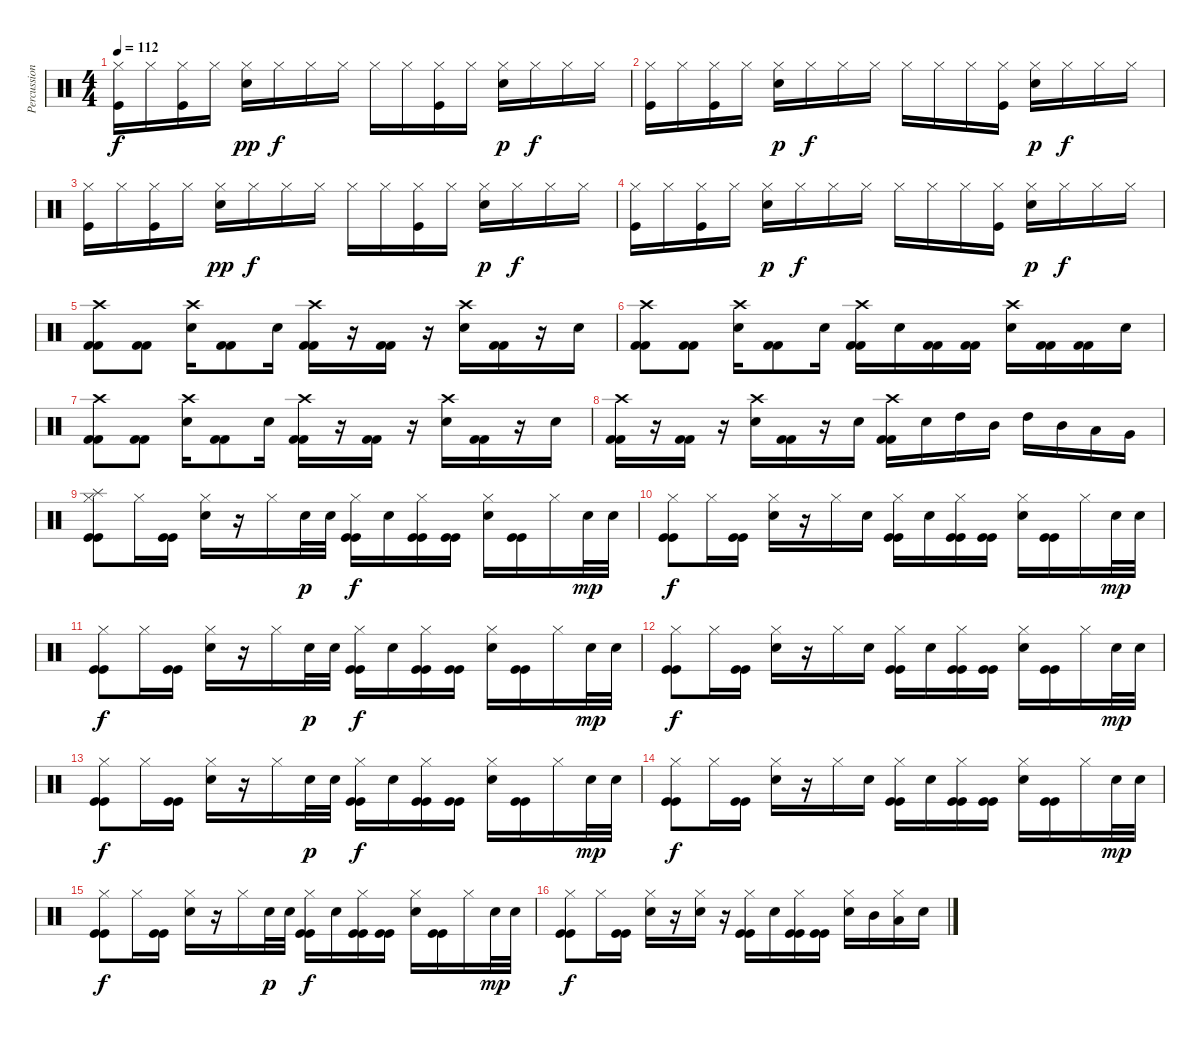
\track ("Percussion" "Percussion") {instrument percussion}
\staff {score}
\articulation defaults
\ts (4 4)
\tempo 112
\clef neutral
\ks c
("Hi-Hat (closed)" "Kick (hit)").16{dy f} "Hi-Hat (closed)".16 ("Hi-Hat (closed)" "Kick (hit)").16 "Hi-Hat (closed)".16 ("Hi-Hat (closed)" "Electric Snare (hit)").16{dy pp} "Hi-Hat (closed)".16{dy f} "Hi-Hat (closed)".16 "Hi-Hat (closed)".16 "Hi-Hat (closed)".16 "Hi-Hat (closed)".16 ("Hi-Hat (closed)" "Kick (hit)").16 "Hi-Hat (closed)".16 ("Hi-Hat (closed)" "Electric Snare (hit)").16{dy p} "Hi-Hat (closed)".16{dy f} "Hi-Hat (closed)".16 "Hi-Hat (closed)".16 |
("Hi-Hat (closed)" "Kick (hit)").16 "Hi-Hat (closed)".16 ("Hi-Hat (closed)" "Kick (hit)").16 "Hi-Hat (closed)".16 ("Hi-Hat (closed)" "Electric Snare (hit)").16{dy p} "Hi-Hat (closed)".16{dy f} "Hi-Hat (closed)".16 "Hi-Hat (closed)".16 "Hi-Hat (closed)".16 "Hi-Hat (closed)".16 "Hi-Hat (closed)".16 ("Hi-Hat (closed)" "Kick (hit)").16 ("Hi-Hat (closed)" "Electric Snare (hit)").16{dy p} "Hi-Hat (closed)".16{dy f} "Hi-Hat (closed)".16 "Hi-Hat (closed)".16 |
("Hi-Hat (closed)" "Kick (hit)").16 "Hi-Hat (closed)".16 ("Hi-Hat (closed)" "Kick (hit)").16 "Hi-Hat (closed)".16 ("Hi-Hat (closed)" "Electric Snare (hit)").16{dy pp} "Hi-Hat (closed)".16{dy f} "Hi-Hat (closed)".16 "Hi-Hat (closed)".16 "Hi-Hat (closed)".16 "Hi-Hat (closed)".16 ("Hi-Hat (closed)" "Kick (hit)").16 "Hi-Hat (closed)".16 ("Hi-Hat (closed)" "Electric Snare (hit)").16{dy p} "Hi-Hat (closed)".16{dy f} "Hi-Hat (closed)".16 "Hi-Hat (closed)".16 |
("Hi-Hat (closed)" "Kick (hit)").16 "Hi-Hat (closed)".16 ("Hi-Hat (closed)" "Kick (hit)").16 "Hi-Hat (closed)".16 ("Hi-Hat (closed)" "Electric Snare (hit)").16{dy p} "Hi-Hat (closed)".16{dy f} "Hi-Hat (closed)".16 "Hi-Hat (closed)".16 "Hi-Hat (closed)".16 "Hi-Hat (closed)".16 "Hi-Hat (closed)".16 ("Hi-Hat (closed)" "Kick (hit)").16 ("Hi-Hat (closed)" "Electric Snare (hit)").16{dy p} "Hi-Hat (closed)".16{dy f} "Hi-Hat (closed)".16 "Hi-Hat (closed)".16 |
("Crash high (hit)" "Kick (hit) 2" "Kick (hit) 2").8 ("Kick (hit) 2" "Kick (hit) 2").8 ("Crash high (hit)" "Electric Snare (hit)").16 ("Kick (hit) 2" "Kick (hit) 2").8 "Electric Snare (hit)".16 ("Crash high (hit)" "Kick (hit) 2" "Kick (hit) 2").16 r.16 ("Kick (hit) 2" "Kick (hit) 2").16 r.16 ("Crash high (hit)" "Electric Snare (hit)").16 ("Kick (hit) 2" "Kick (hit) 2").16 r.16 "Electric Snare (hit)".16 |
("Crash high (hit)" "Kick (hit) 2" "Kick (hit) 2").8 ("Kick (hit) 2" "Kick (hit) 2").8 ("Crash high (hit)" "Electric Snare (hit)").16 ("Kick (hit) 2" "Kick (hit) 2").8 "Electric Snare (hit)".16 ("Crash high (hit)" "Kick (hit) 2" "Kick (hit) 2").16 "Electric Snare (hit)".16 ("Kick (hit) 2" "Kick (hit) 2").16 ("Kick (hit) 2" "Kick (hit) 2").16 ("Crash high (hit)" "Electric Snare (hit)").16 ("Kick (hit) 2" "Kick (hit) 2").16 ("Kick (hit) 2" "Kick (hit) 2").16 "Electric Snare (hit)".16 |
("Crash high (hit)" "Kick (hit) 2" "Kick (hit) 2").8 ("Kick (hit) 2" "Kick (hit) 2").8 ("Crash high (hit)" "Electric Snare (hit)").16 ("Kick (hit) 2" "Kick (hit) 2").8 "Electric Snare (hit)".16 ("Crash high (hit)" "Kick (hit) 2" "Kick (hit) 2").16 r.16 ("Kick (hit) 2" "Kick (hit) 2").16 r.16 ("Crash high (hit)" "Electric Snare (hit)").16 ("Kick (hit) 2" "Kick (hit) 2").16 r.16 "Electric Snare (hit)".16 |
("Crash high (hit)" "Kick (hit) 2" "Kick (hit) 2").16 r.16 ("Kick (hit) 2" "Kick (hit) 2").16 r.16 ("Crash high (hit)" "Electric Snare (hit)").16 ("Kick (hit) 2" "Kick (hit) 2").16 r.16 "Electric Snare (hit)".16 ("Crash high (hit)" "Kick (hit) 2" "Kick (hit) 2").16 "Electric Snare (hit)".16 "High Tom (hit)".16 "Mid Tom (hit)".16 "High Tom (hit)".16 "Mid Tom (hit)".16 "Low Tom (hit)".16 "Very Low Tom (hit)".16 |
("Hi-Hat (closed)" "Splash (hit)" "Kick (hit)" "Kick (hit)").8 "Hi-Hat (closed)".16 ("Kick (hit)" "Kick (hit)").16 ("Hi-Hat (closed)" "Electric Snare (hit)").16 r.16 "Hi-Hat (closed)".16 "Electric Snare (hit)".32{dy p} "Electric Snare (hit)".32 ("Hi-Hat (closed)" "Kick (hit)" "Kick (hit)").16{dy f} "Electric Snare (hit)".16 ("Hi-Hat (closed)" "Kick (hit)" "Kick (hit)").16 ("Kick (hit)" "Kick (hit)").16 ("Hi-Hat (closed)" "Electric Snare (hit)").16 ("Kick (hit)" "Kick (hit)").16 "Hi-Hat (closed)".16 "Electric Snare (hit)".32{dy mp} "Electric Snare (hit)".32 |
("Hi-Hat (closed)" "Kick (hit)" "Kick (hit)").8{dy f} "Hi-Hat (closed)".16 ("Kick (hit)" "Kick (hit)").16 ("Hi-Hat (closed)" "Electric Snare (hit)").16 r.16 "Hi-Hat (closed)".16 "Electric Snare (hit)".16 ("Hi-Hat (closed)" "Kick (hit)" "Kick (hit)").16 "Electric Snare (hit)".16 ("Hi-Hat (closed)" "Kick (hit)" "Kick (hit)").16 ("Kick (hit)" "Kick (hit)").16 ("Hi-Hat (closed)" "Electric Snare (hit)").16 ("Kick (hit)" "Kick (hit)").16 "Hi-Hat (closed)".16 "Electric Snare (hit)".32{dy mp} "Electric Snare (hit)".32 |
("Hi-Hat (closed)" "Kick (hit)" "Kick (hit)").8{dy f} "Hi-Hat (closed)".16 ("Kick (hit)" "Kick (hit)").16 ("Hi-Hat (closed)" "Electric Snare (hit)").16 r.16 "Hi-Hat (closed)".16 "Electric Snare (hit)".32{dy p} "Electric Snare (hit)".32 ("Hi-Hat (closed)" "Kick (hit)" "Kick (hit)").16{dy f} "Electric Snare (hit)".16 ("Hi-Hat (closed)" "Kick (hit)" "Kick (hit)").16 ("Kick (hit)" "Kick (hit)").16 ("Hi-Hat (closed)" "Electric Snare (hit)").16 ("Kick (hit)" "Kick (hit)").16 "Hi-Hat (closed)".16 "Electric Snare (hit)".32{dy mp} "Electric Snare (hit)".32 |
("Hi-Hat (closed)" "Kick (hit)" "Kick (hit)").8{dy f} "Hi-Hat (closed)".16 ("Kick (hit)" "Kick (hit)").16 ("Hi-Hat (closed)" "Electric Snare (hit)").16 r.16 "Hi-Hat (closed)".16 "Electric Snare (hit)".16 ("Hi-Hat (closed)" "Kick (hit)" "Kick (hit)").16 "Electric Snare (hit)".16 ("Hi-Hat (closed)" "Kick (hit)" "Kick (hit)").16 ("Kick (hit)" "Kick (hit)").16 ("Hi-Hat (closed)" "Electric Snare (hit)").16 ("Kick (hit)" "Kick (hit)").16 "Hi-Hat (closed)".16 "Electric Snare (hit)".32{dy mp} "Electric Snare (hit)".32 |
("Hi-Hat (closed)" "Kick (hit)" "Kick (hit)").8{dy f} "Hi-Hat (closed)".16 ("Kick (hit)" "Kick (hit)").16 ("Hi-Hat (closed)" "Electric Snare (hit)").16 r.16 "Hi-Hat (closed)".16 "Electric Snare (hit)".32{dy p} "Electric Snare (hit)".32 ("Hi-Hat (closed)" "Kick (hit)" "Kick (hit)").16{dy f} "Electric Snare (hit)".16 ("Hi-Hat (closed)" "Kick (hit)" "Kick (hit)").16 ("Kick (hit)" "Kick (hit)").16 ("Hi-Hat (closed)" "Electric Snare (hit)").16 ("Kick (hit)" "Kick (hit)").16 "Hi-Hat (closed)".16 "Electric Snare (hit)".32{dy mp} "Electric Snare (hit)".32 |
("Hi-Hat (closed)" "Kick (hit)" "Kick (hit)").8{dy f} "Hi-Hat (closed)".16 ("Kick (hit)" "Kick (hit)").16 ("Hi-Hat (closed)" "Electric Snare (hit)").16 r.16 "Hi-Hat (closed)".16 "Electric Snare (hit)".16 ("Hi-Hat (closed)" "Kick (hit)" "Kick (hit)").16 "Electric Snare (hit)".16 ("Hi-Hat (closed)" "Kick (hit)" "Kick (hit)").16 ("Kick (hit)" "Kick (hit)").16 ("Hi-Hat (closed)" "Electric Snare (hit)").16 ("Kick (hit)" "Kick (hit)").16 "Hi-Hat (closed)".16 "Electric Snare (hit)".32{dy mp} "Electric Snare (hit)".32 |
("Hi-Hat (closed)" "Kick (hit)" "Kick (hit)").8{dy f} "Hi-Hat (closed)".16 ("Kick (hit)" "Kick (hit)").16 ("Hi-Hat (closed)" "Electric Snare (hit)").16 r.16 "Hi-Hat (closed)".16 "Electric Snare (hit)".32{dy p} "Electric Snare (hit)".32 ("Hi-Hat (closed)" "Kick (hit)" "Kick (hit)").16{dy f} "Electric Snare (hit)".16 ("Hi-Hat (closed)" "Kick (hit)" "Kick (hit)").16 ("Kick (hit)" "Kick (hit)").16 ("Hi-Hat (closed)" "Electric Snare (hit)").16 ("Kick (hit)" "Kick (hit)").16 "Hi-Hat (closed)".16 "Electric Snare (hit)".32{dy mp} "Electric Snare (hit)".32 |
("Hi-Hat (closed)" "Kick (hit)" "Kick (hit)").8{dy f} "Hi-Hat (closed)".16 ("Kick (hit)" "Kick (hit)").16 ("Hi-Hat (closed)" "Electric Snare (hit)").16 r.16 ("Hi-Hat (closed)" "Electric Snare (hit)").16 r.16 ("Hi-Hat (closed)" "Kick (hit)" "Kick (hit)").16 "Electric Snare (hit)".16 ("Hi-Hat (closed)" "Kick (hit)" "Kick (hit)").16 ("Kick (hit)" "Kick (hit)").16 ("Hi-Hat (closed)" "Electric Snare (hit)").16 "Mid Tom (hit)".16 ("Hi-Hat (closed)" "Low Tom (hit)").16 "Electric Snare (hit)".16
